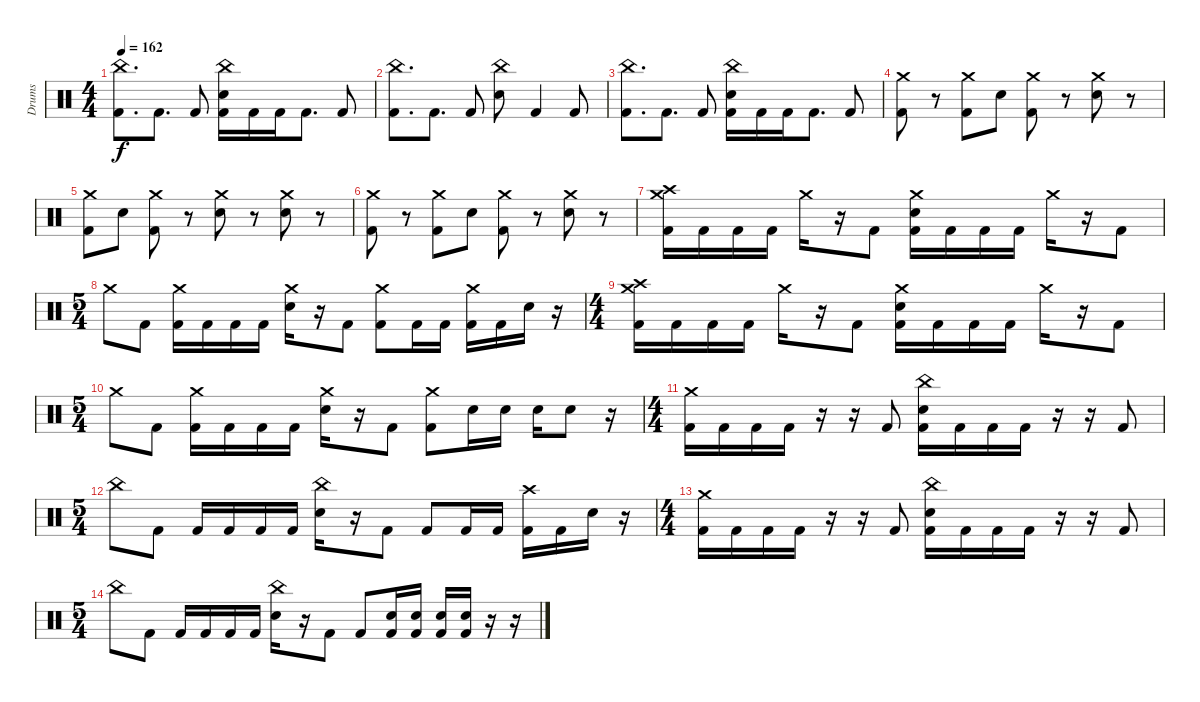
\track ("Drums" "Drums") {instrument percussion}
\staff {score}
\articulation defaults
\ts (4 4)
\tempo 162
\clef neutral
\ks c
("China (hit)" "Kick (hit) 2").8{d dy f} "Kick (hit) 2".8{d} "Kick (hit) 2".8 ("China (hit)" "Electric Snare (hit)" "Kick (hit) 2").16 "Kick (hit) 2".16 "Kick (hit) 2".16 "Kick (hit) 2".8{d} "Kick (hit) 2".8 |
("China (hit)" "Kick (hit) 2").8{d} "Kick (hit) 2".8{d} "Kick (hit) 2".8 ("China (hit)" "Electric Snare (hit)").8 "Kick (hit) 2".4 "Kick (hit) 2".8 |
("China (hit)" "Kick (hit) 2").8{d} "Kick (hit) 2".8{d} "Kick (hit) 2".8 ("China (hit)" "Electric Snare (hit)" "Kick (hit) 2").16 "Kick (hit) 2".16 "Kick (hit) 2".16 "Kick (hit) 2".8{d} "Kick (hit) 2".8 |
("Crash medium (hit)" "Kick (hit) 2").8 r.8 ("Crash medium (hit)" "Kick (hit) 2").8 "Electric Snare (hit)".8 ("Crash medium (hit)" "Kick (hit) 2").8 r.8 ("Crash medium (hit)" "Electric Snare (hit)").8 r.8 |
("Crash medium (hit)" "Kick (hit) 2").8 "Electric Snare (hit)".8 ("Crash medium (hit)" "Kick (hit) 2").8 r.8 ("Crash medium (hit)" "Electric Snare (hit)").8 r.8 ("Crash medium (hit)" "Electric Snare (hit)").8 r.8 |
("Crash medium (hit)" "Kick (hit) 2").8 r.8 ("Crash medium (hit)" "Kick (hit) 2").8 "Electric Snare (hit)".8 ("Crash medium (hit)" "Kick (hit) 2").8 r.8 ("Crash medium (hit)" "Electric Snare (hit)").8 r.8 |
("Crash medium (hit)" "Crash high (hit)" "Kick (hit) 2").16 "Kick (hit) 2".16 "Kick (hit) 2".16 "Kick (hit) 2".16 "Crash medium (hit)".16 r.16 "Kick (hit) 2".8 ("Crash medium (hit)" "Electric Snare (hit)" "Kick (hit) 2").16 "Kick (hit) 2".16 "Kick (hit) 2".16 "Kick (hit) 2".16 "Crash medium (hit)".16 r.16 "Kick (hit) 2".8 |
\ts (5 4)
"Crash medium (hit)".8 "Kick (hit) 2".8 ("Crash medium (hit)" "Kick (hit) 2").16 "Kick (hit) 2".16 "Kick (hit) 2".16 "Kick (hit) 2".16 ("Crash medium (hit)" "Electric Snare (hit)").16 r.16 "Kick (hit) 2".8 ("Crash medium (hit)" "Kick (hit) 2").8 "Kick (hit) 2".16 "Kick (hit) 2".16 ("Crash medium (hit)" "Kick (hit) 2").16 "Kick (hit) 2".16 "Electric Snare (hit)".16 r.16 |
\ts (4 4)
("Crash medium (hit)" "Crash high (hit)" "Kick (hit) 2").16 "Kick (hit) 2".16 "Kick (hit) 2".16 "Kick (hit) 2".16 "Crash medium (hit)".16 r.16 "Kick (hit) 2".8 ("Crash medium (hit)" "Electric Snare (hit)" "Kick (hit) 2").16 "Kick (hit) 2".16 "Kick (hit) 2".16 "Kick (hit) 2".16 "Crash medium (hit)".16 r.16 "Kick (hit) 2".8 |
\ts (5 4)
"Crash medium (hit)".8 "Kick (hit) 2".8 ("Crash medium (hit)" "Kick (hit) 2").16 "Kick (hit) 2".16 "Kick (hit) 2".16 "Kick (hit) 2".16 ("Crash medium (hit)" "Electric Snare (hit)").16 r.16 "Kick (hit) 2".8 ("Crash medium (hit)" "Kick (hit) 2").8 "Electric Snare (hit)".16 "Electric Snare (hit)".16 "Electric Snare (hit)".16 "Electric Snare (hit)".8 r.16 |
\ts (4 4)
("Crash medium (hit)" "Kick (hit) 2").16 "Kick (hit) 2".16 "Kick (hit) 2".16 "Kick (hit) 2".16 r.16 r.16 "Kick (hit) 2".8 ("China (hit)" "Electric Snare (hit)" "Kick (hit) 2").16 "Kick (hit) 2".16 "Kick (hit) 2".16 "Kick (hit) 2".16 r.16 r.16 "Kick (hit) 2".8 |
\ts (5 4)
"China (hit)".8 "Kick (hit) 2".8 "Kick (hit) 2".16 "Kick (hit) 2".16 "Kick (hit) 2".16 "Kick (hit) 2".16 ("China (hit)" "Electric Snare (hit)").16 r.16 "Kick (hit) 2".8 "Kick (hit) 2".8 "Kick (hit) 2".16 "Kick (hit) 2".16 ("Crash high (hit)" "Kick (hit) 2").16 "Kick (hit) 2".16 "Electric Snare (hit)".16 r.16 |
\ts (4 4)
("Crash medium (hit)" "Kick (hit) 2").16 "Kick (hit) 2".16 "Kick (hit) 2".16 "Kick (hit) 2".16 r.16 r.16 "Kick (hit) 2".8 ("China (hit)" "Electric Snare (hit)" "Kick (hit) 2").16 "Kick (hit) 2".16 "Kick (hit) 2".16 "Kick (hit) 2".16 r.16 r.16 "Kick (hit) 2".8 |
\ts (5 4)
"China (hit)".8 "Kick (hit) 2".8 "Kick (hit) 2".16 "Kick (hit) 2".16 "Kick (hit) 2".16 "Kick (hit) 2".16 ("China (hit)" "Electric Snare (hit)").16 r.16 "Kick (hit) 2".8 "Kick (hit) 2".8 ("Electric Snare (hit)" "Kick (hit) 2").16 ("Electric Snare (hit)" "Kick (hit) 2").16 ("Electric Snare (hit)" "Kick (hit) 2").16 ("Electric Snare (hit)" "Kick (hit) 2").16 r.16 r.16
